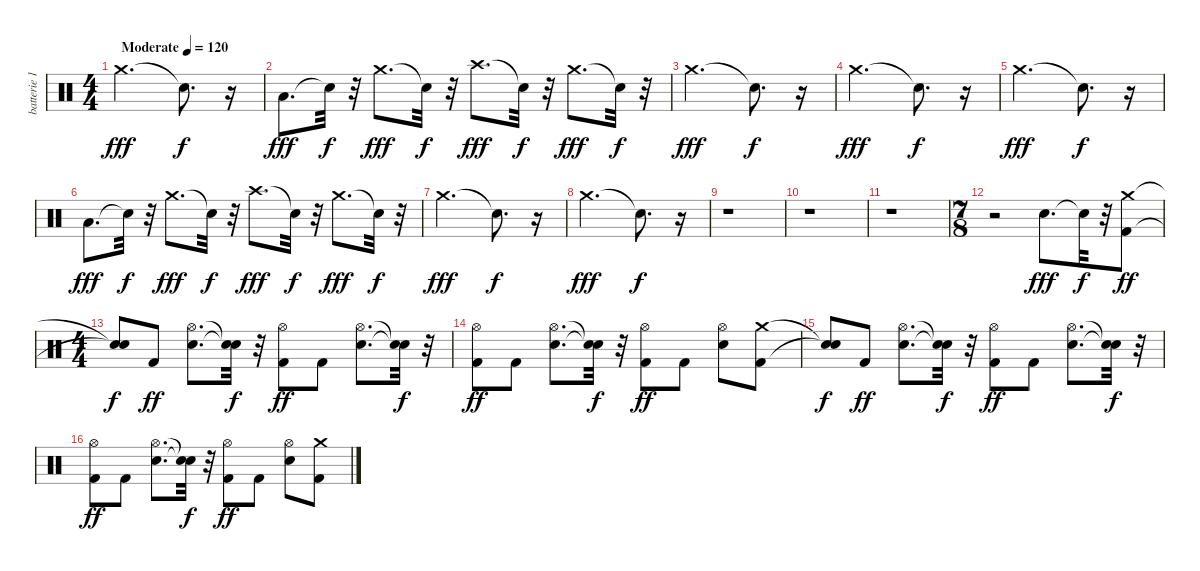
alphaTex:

\track ("batterie 1" "batterie 1") {instrument percussion}
\staff {score}
\articulation defaults
\ts (4 4)
\tempo (120 "Moderate")
\clef neutral
\ks c "Crash medium (hit)".2{d dy fff} "Snare (hit)"{t}.8{d dy f}
r.16 |
"Low Tom (hit)".8{d dy fff} "Snare (hit)"{t}.32{dy f} r.32 "Crash medium (hit)".8{d dy fff} "Snare (hit)"{t}.32{dy f} r.32 "Crash high (hit)".8{d dy fff} "Snare (hit)"{t}.32{dy f} r.32 "Crash medium (hit)".8{d dy fff} "Snare (hit)"{t}.32{dy f} r.32 |
"Crash medium (hit)".2{d dy fff} "Snare (hit)"{t}.8{d dy f} r.16 |
"Crash medium (hit)".2{d dy fff} "Snare (hit)"{t}.8{d dy f} r.16 |
"Crash medium (hit)".2{d dy fff} "Snare (hit)"{t}.8{d dy f} r.16 |
"Low Tom (hit)".8{d dy fff} "Snare (hit)"{t}.32{dy f} r.32 "Crash medium (hit)".8{d dy fff} "Snare (hit)"{t}.32{dy f} r.32 "Crash high (hit)".8{d dy fff} "Snare (hit)"{t}.32{dy f} r.32 "Crash medium (hit)".8{d dy fff} "Snare (hit)"{t}.32{dy f} r.32 |
"Crash medium (hit)".2{d dy fff} "Snare (hit)"{t}.8{d dy f} r.16 |
"Crash medium (hit)".2{d dy fff} "Snare (hit)"{t}.8{d dy f} r.16 |
r.1 |
r.1 |
r.1 |
\ts (7 8)
r.2 "Electric Snare (hit)".8{d dy fff} "Snare (hit)"{t}.32{dy f} r.32 ("Kick (hit) 2" "Crash medium (hit)").8{dy ff} |
\ts (4 4)
("Snare (hit)"{t} "Snare (hit)"{t}).8{dy f} "Kick (hit) 2".8{dy ff} ("Electric Snare (hit)" "Hi-Hat (open)").8{d} ("Snare (hit)"{t} "Snare (hit)"{t}).32{dy f} r.32 ("Kick (hit) 2" "Hi-Hat (open)").8{dy ff} "Kick (hit) 2".8 ("Electric Snare (hit)" "Hi-Hat (open)").8{d} ("Snare (hit)"{t} "Snare (hit)"{t}).32{dy f} r.32 |
("Kick (hit) 2" "Hi-Hat (open)").8{dy ff} "Kick (hit) 2".8 ("Electric Snare (hit)" "Hi-Hat (open)").8{d} ("Snare (hit)"{t} "Snare (hit)"{t}).32{dy f} r.32 ("Kick (hit) 2" "Hi-Hat (open)").8{dy ff} "Kick (hit) 2".8 ("Electric Snare (hit)" "Hi-Hat (open)").8 ("Kick (hit) 2" "Crash medium (hit)").8 |
("Snare (hit)"{t} "Snare (hit)"{t}).8{dy f} "Kick (hit) 2".8{dy ff} ("Electric Snare (hit)" "Hi-Hat (open)").8{d} ("Snare (hit)"{t} "Snare (hit)"{t}).32{dy f} r.32 ("Kick (hit) 2" "Hi-Hat (open)").8{dy ff} "Kick (hit) 2".8 ("Electric Snare (hit)" "Hi-Hat (open)").8{d} ("Snare (hit)"{t} "Snare (hit)"{t}).32{dy f} r.32 |
("Kick (hit) 2" "Hi-Hat (open)").8{dy ff} "Kick (hit) 2".8 ("Electric Snare (hit)" "Hi-Hat (open)").8{d} ("Snare (hit)"{t} "Snare (hit)"{t}).32{dy f} r.32 ("Kick (hit) 2" "Hi-Hat (open)").8{dy ff} "Kick (hit) 2".8 ("Electric Snare (hit)" "Hi-Hat (open)").8 ("Kick (hit) 2" "Crash medium (hit)").8
